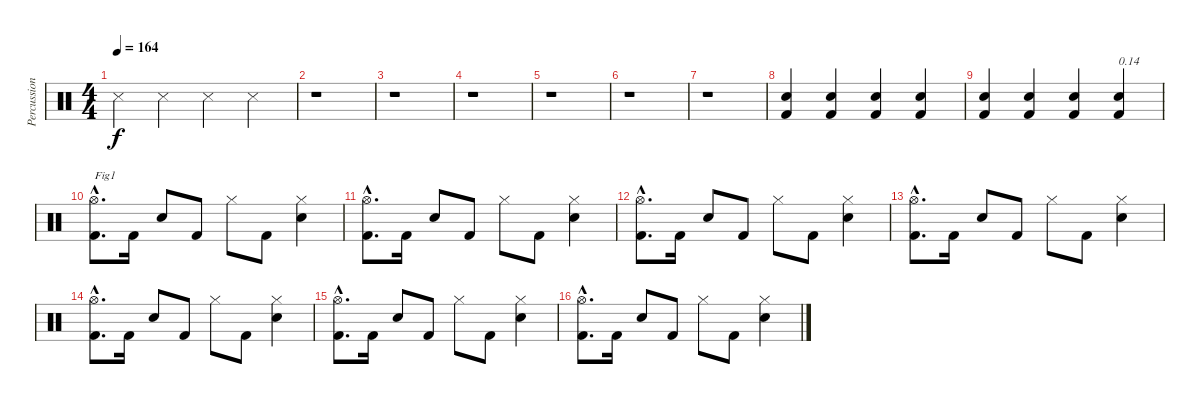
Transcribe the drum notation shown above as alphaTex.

\track ("Percussions" "Percussion") {instrument percussion}
\staff {score}
\articulation defaults
\ts (4 4)
\tempo 164
\clef neutral
\ks c "Metronome (hit)".4{dy f} "Metronome (hit)".4 "Metronome (hit)".4 "Metronome (hit)".4
|
r.1 |
r.1 |
r.1 |
r.1 |
r.1 |
r.1 |
("Kick (hit) 2" "Electric Snare (hit)").4 ("Kick (hit) 2" "Electric Snare (hit)").4 ("Kick (hit) 2" "Electric Snare (hit)").4 ("Kick (hit) 2" "Electric Snare (hit)").4 |
("Kick (hit) 2" "Electric Snare (hit)").4 ("Kick (hit) 2" "Electric Snare (hit)").4 ("Kick (hit) 2" "Electric Snare (hit)").4 ("Kick (hit) 2" "Electric Snare (hit)").4{txt "0.14"} |
("Kick (hit) 2"{hac} "Hi-Hat (open)"{hac}).8{d txt "Fig1"} "Kick (hit) 2".16 "Electric Snare (hit)".8 "Kick (hit) 2".8 "Hi-Hat (closed)".8 "Kick (hit) 2".8 ("Electric Snare (hit)" "Hi-Hat (closed)").4 |
("Kick (hit) 2"{hac} "Hi-Hat (open)"{hac}).8{d} "Kick (hit) 2".16 "Electric Snare (hit)".8 "Kick (hit) 2".8 "Hi-Hat (closed)".8 "Kick (hit) 2".8 ("Electric Snare (hit)" "Hi-Hat (closed)").4 |
("Kick (hit) 2"{hac} "Hi-Hat (open)"{hac}).8{d} "Kick (hit) 2".16 "Electric Snare (hit)".8 "Kick (hit) 2".8 "Hi-Hat (closed)".8 "Kick (hit) 2".8 ("Electric Snare (hit)" "Hi-Hat (closed)").4 |
("Kick (hit) 2"{hac} "Hi-Hat (open)"{hac}).8{d} "Kick (hit) 2".16 "Electric Snare (hit)".8 "Kick (hit) 2".8 "Hi-Hat (closed)".8 "Kick (hit) 2".8 ("Electric Snare (hit)" "Hi-Hat (closed)").4 |
("Kick (hit) 2"{hac} "Hi-Hat (open)"{hac}).8{d} "Kick (hit) 2".16 "Electric Snare (hit)".8 "Kick (hit) 2".8 "Hi-Hat (closed)".8 "Kick (hit) 2".8 ("Electric Snare (hit)" "Hi-Hat (closed)").4 |
("Kick (hit) 2"{hac} "Hi-Hat (open)"{hac}).8{d} "Kick (hit) 2".16 "Electric Snare (hit)".8 "Kick (hit) 2".8 "Hi-Hat (closed)".8 "Kick (hit) 2".8 ("Electric Snare (hit)" "Hi-Hat (closed)").4 |
("Kick (hit) 2"{hac} "Hi-Hat (open)"{hac}).8{d} "Kick (hit) 2".16 "Electric Snare (hit)".8 "Kick (hit) 2".8 "Hi-Hat (closed)".8 "Kick (hit) 2".8 ("Electric Snare (hit)" "Hi-Hat (closed)").4
